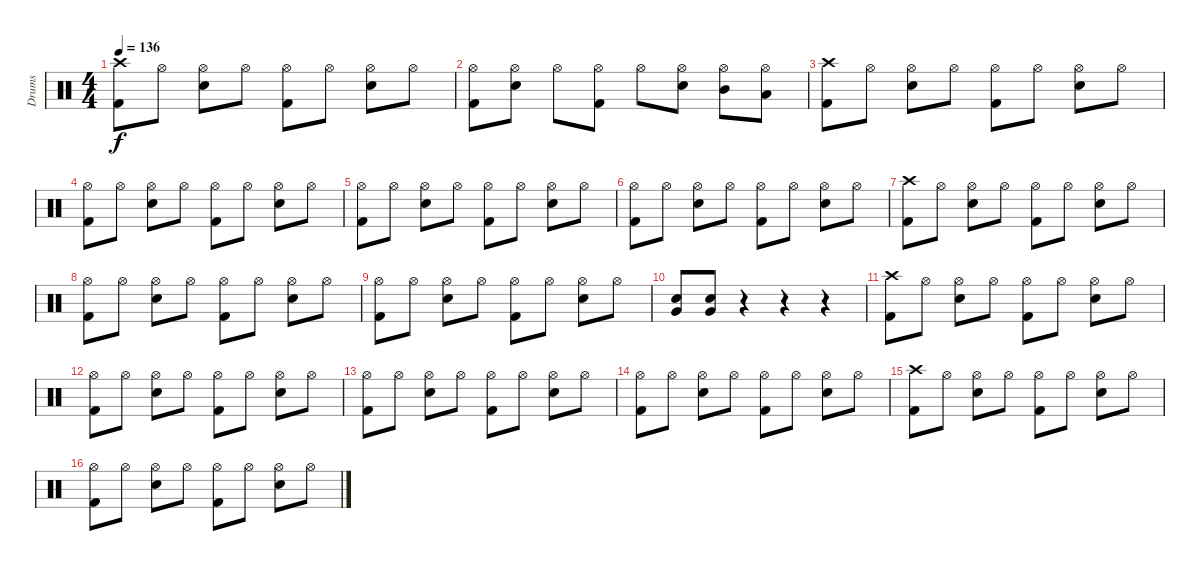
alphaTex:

\track ("Drums" "Drums") {instrument percussion}
\staff {score}
\articulation defaults
\ts (4 4)
\tempo 136
\clef neutral
\ks c
("Crash high (hit)" "Kick (hit) 2").8{dy f} "Hi-Hat (open)".8 ("Hi-Hat (open)" "Snare (hit) 2").8 "Hi-Hat (open)".8 ("Hi-Hat (open)" "Kick (hit) 2").8 "Hi-Hat (open)".8 ("Hi-Hat (open)" "Snare (hit) 2").8 "Hi-Hat (open)".8 |
("Hi-Hat (open)" "Kick (hit) 2").8 ("Hi-Hat (open)" "Snare (hit) 2").8 "Hi-Hat (open)".8 ("Hi-Hat (open)" "Kick (hit) 2").8 "Hi-Hat (open)".8 ("Hi-Hat (open)" "Snare (hit) 2").8 ("Hi-Hat (open)" "Mid Tom (hit)").8 ("Hi-Hat (open)" "Low Tom (hit)").8 |
("Crash high (hit)" "Kick (hit) 2").8 "Hi-Hat (open)".8 ("Hi-Hat (open)" "Snare (hit) 2").8 "Hi-Hat (open)".8 ("Hi-Hat (open)" "Kick (hit) 2").8 "Hi-Hat (open)".8 ("Hi-Hat (open)" "Snare (hit) 2").8 "Hi-Hat (open)".8 |
("Hi-Hat (open)" "Kick (hit) 2").8 "Hi-Hat (open)".8 ("Hi-Hat (open)" "Snare (hit) 2").8 "Hi-Hat (open)".8 ("Hi-Hat (open)" "Kick (hit) 2").8 "Hi-Hat (open)".8 ("Hi-Hat (open)" "Snare (hit) 2").8 "Hi-Hat (open)".8 |
("Hi-Hat (open)" "Kick (hit) 2").8 "Hi-Hat (open)".8 ("Hi-Hat (open)" "Snare (hit) 2").8 "Hi-Hat (open)".8 ("Hi-Hat (open)" "Kick (hit) 2").8 "Hi-Hat (open)".8 ("Hi-Hat (open)" "Snare (hit) 2").8 "Hi-Hat (open)".8 |
("Hi-Hat (open)" "Kick (hit) 2").8 "Hi-Hat (open)".8 ("Hi-Hat (open)" "Snare (hit) 2").8 "Hi-Hat (open)".8 ("Hi-Hat (open)" "Kick (hit) 2").8 "Hi-Hat (open)".8 ("Hi-Hat (open)" "Snare (hit) 2").8 "Hi-Hat (open)".8 |
("Crash high (hit)" "Kick (hit) 2").8 "Hi-Hat (open)".8 ("Hi-Hat (open)" "Snare (hit) 2").8 "Hi-Hat (open)".8 ("Hi-Hat (open)" "Kick (hit) 2").8 "Hi-Hat (open)".8 ("Hi-Hat (open)" "Snare (hit) 2").8 "Hi-Hat (open)".8 |
("Hi-Hat (open)" "Kick (hit) 2").8 "Hi-Hat (open)".8 ("Hi-Hat (open)" "Snare (hit) 2").8 "Hi-Hat (open)".8 ("Hi-Hat (open)" "Kick (hit) 2").8 "Hi-Hat (open)".8 ("Hi-Hat (open)" "Snare (hit) 2").8 "Hi-Hat (open)".8 |
("Hi-Hat (open)" "Kick (hit) 2").8 "Hi-Hat (open)".8 ("Hi-Hat (open)" "Snare (hit) 2").8 "Hi-Hat (open)".8 ("Hi-Hat (open)" "Kick (hit) 2").8 "Hi-Hat (open)".8 ("Hi-Hat (open)" "Snare (hit) 2").8 "Hi-Hat (open)".8 |
("Very Low Tom (hit)" "Snare (hit) 2").8 ("Very Low Tom (hit)" "Snare (hit) 2").8 r.4 r.4 r.4 |
("Crash high (hit)" "Kick (hit) 2").8 "Hi-Hat (open)".8 ("Hi-Hat (open)" "Snare (hit) 2").8 "Hi-Hat (open)".8 ("Hi-Hat (open)" "Kick (hit) 2").8 "Hi-Hat (open)".8 ("Hi-Hat (open)" "Snare (hit) 2").8 "Hi-Hat (open)".8 |
("Hi-Hat (open)" "Kick (hit) 2").8 "Hi-Hat (open)".8 ("Hi-Hat (open)" "Snare (hit) 2").8 "Hi-Hat (open)".8 ("Hi-Hat (open)" "Kick (hit) 2").8 "Hi-Hat (open)".8 ("Hi-Hat (open)" "Snare (hit) 2").8 "Hi-Hat (open)".8 |
("Hi-Hat (open)" "Kick (hit) 2").8 "Hi-Hat (open)".8 ("Hi-Hat (open)" "Snare (hit) 2").8 "Hi-Hat (open)".8 ("Hi-Hat (open)" "Kick (hit) 2").8 "Hi-Hat (open)".8 ("Hi-Hat (open)" "Snare (hit) 2").8 "Hi-Hat (open)".8 |
("Hi-Hat (open)" "Kick (hit) 2").8 "Hi-Hat (open)".8 ("Hi-Hat (open)" "Snare (hit) 2").8 "Hi-Hat (open)".8 ("Hi-Hat (open)" "Kick (hit) 2").8 "Hi-Hat (open)".8 ("Hi-Hat (open)" "Snare (hit) 2").8 "Hi-Hat (open)".8 |
("Crash high (hit)" "Kick (hit) 2").8 "Hi-Hat (open)".8 ("Hi-Hat (open)" "Snare (hit) 2").8 "Hi-Hat (open)".8 ("Hi-Hat (open)" "Kick (hit) 2").8 "Hi-Hat (open)".8 ("Hi-Hat (open)" "Snare (hit) 2").8 "Hi-Hat (open)".8 |
("Hi-Hat (open)" "Kick (hit) 2").8 "Hi-Hat (open)".8 ("Hi-Hat (open)" "Snare (hit) 2").8 "Hi-Hat (open)".8 ("Hi-Hat (open)" "Kick (hit) 2").8 "Hi-Hat (open)".8 ("Hi-Hat (open)" "Snare (hit) 2").8 "Hi-Hat (open)".8
